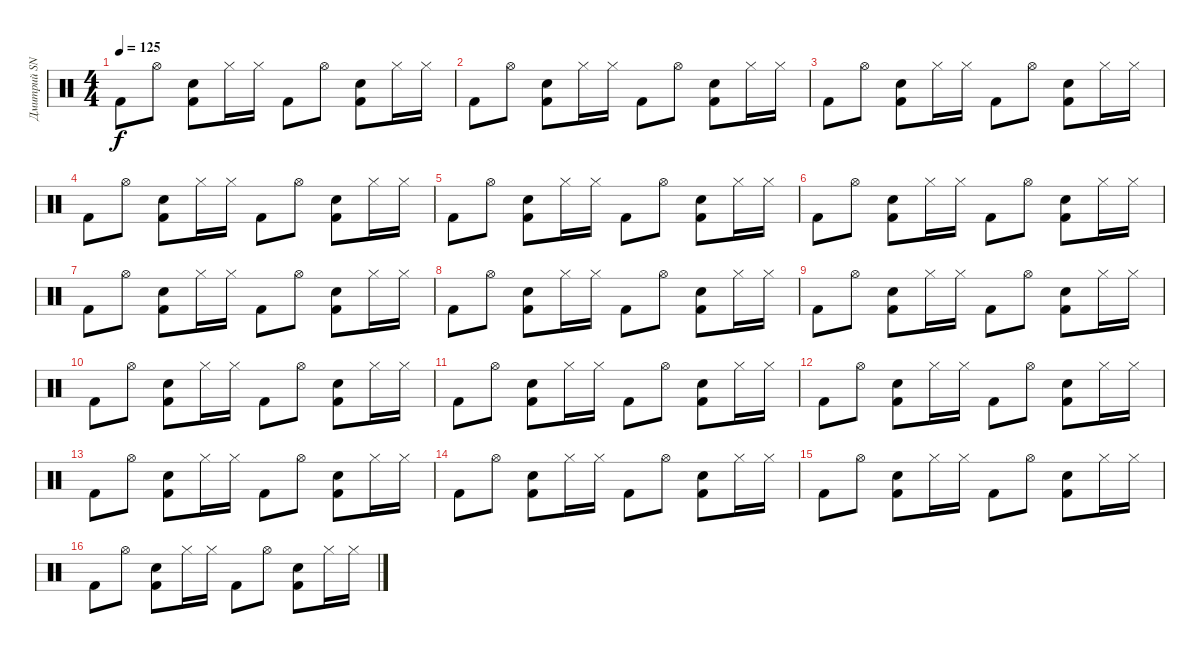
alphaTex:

\track ("Дмитрий SNAKE Хакимов" "Дмитрий SN") {instrument percussion}
\staff {score}
\articulation defaults
\ts (4 4)
\tempo 125
\clef neutral
\ks c "Kick (hit) 2".8{dy f} "Hi-Hat (open)".8
("Snare (hit) 2" "Kick (hit) 2").8 "Hi-Hat (closed)".16 "Hi-Hat (closed)".16 "Kick (hit) 2".8 "Hi-Hat (open)".8 ("Snare (hit) 2" "Kick (hit) 2").8 "Hi-Hat (closed)".16 "Hi-Hat (closed)".16 |
"Kick (hit) 2".8 "Hi-Hat (open)".8 ("Snare (hit) 2" "Kick (hit) 2").8 "Hi-Hat (closed)".16 "Hi-Hat (closed)".16 "Kick (hit) 2".8 "Hi-Hat (open)".8 ("Snare (hit) 2" "Kick (hit) 2").8 "Hi-Hat (closed)".16 "Hi-Hat (closed)".16 |
"Kick (hit) 2".8 "Hi-Hat (open)".8 ("Snare (hit) 2" "Kick (hit) 2").8 "Hi-Hat (closed)".16 "Hi-Hat (closed)".16 "Kick (hit) 2".8 "Hi-Hat (open)".8 ("Snare (hit) 2" "Kick (hit) 2").8 "Hi-Hat (closed)".16 "Hi-Hat (closed)".16 |
"Kick (hit) 2".8 "Hi-Hat (open)".8 ("Snare (hit) 2" "Kick (hit) 2").8 "Hi-Hat (closed)".16 "Hi-Hat (closed)".16 "Kick (hit) 2".8 "Hi-Hat (open)".8 ("Snare (hit) 2" "Kick (hit) 2").8 "Hi-Hat (closed)".16 "Hi-Hat (closed)".16 |
"Kick (hit) 2".8 "Hi-Hat (open)".8 ("Snare (hit) 2" "Kick (hit) 2").8 "Hi-Hat (closed)".16 "Hi-Hat (closed)".16 "Kick (hit) 2".8 "Hi-Hat (open)".8 ("Snare (hit) 2" "Kick (hit) 2").8 "Hi-Hat (closed)".16 "Hi-Hat (closed)".16 |
"Kick (hit) 2".8 "Hi-Hat (open)".8 ("Snare (hit) 2" "Kick (hit) 2").8 "Hi-Hat (closed)".16 "Hi-Hat (closed)".16 "Kick (hit) 2".8 "Hi-Hat (open)".8 ("Snare (hit) 2" "Kick (hit) 2").8 "Hi-Hat (closed)".16 "Hi-Hat (closed)".16 |
"Kick (hit) 2".8 "Hi-Hat (open)".8 ("Snare (hit) 2" "Kick (hit) 2").8 "Hi-Hat (closed)".16 "Hi-Hat (closed)".16 "Kick (hit) 2".8 "Hi-Hat (open)".8 ("Snare (hit) 2" "Kick (hit) 2").8 "Hi-Hat (closed)".16 "Hi-Hat (closed)".16 |
"Kick (hit) 2".8 "Hi-Hat (open)".8 ("Snare (hit) 2" "Kick (hit) 2").8 "Hi-Hat (closed)".16 "Hi-Hat (closed)".16 "Kick (hit) 2".8 "Hi-Hat (open)".8 ("Snare (hit) 2" "Kick (hit) 2").8 "Hi-Hat (closed)".16 "Hi-Hat (closed)".16 |
"Kick (hit) 2".8 "Hi-Hat (open)".8 ("Snare (hit) 2" "Kick (hit) 2").8 "Hi-Hat (closed)".16 "Hi-Hat (closed)".16 "Kick (hit) 2".8 "Hi-Hat (open)".8 ("Snare (hit) 2" "Kick (hit) 2").8 "Hi-Hat (closed)".16 "Hi-Hat (closed)".16 |
"Kick (hit) 2".8 "Hi-Hat (open)".8 ("Snare (hit) 2" "Kick (hit) 2").8 "Hi-Hat (closed)".16 "Hi-Hat (closed)".16 "Kick (hit) 2".8 "Hi-Hat (open)".8 ("Snare (hit) 2" "Kick (hit) 2").8 "Hi-Hat (closed)".16 "Hi-Hat (closed)".16 |
"Kick (hit) 2".8 "Hi-Hat (open)".8 ("Snare (hit) 2" "Kick (hit) 2").8 "Hi-Hat (closed)".16 "Hi-Hat (closed)".16 "Kick (hit) 2".8 "Hi-Hat (open)".8 ("Snare (hit) 2" "Kick (hit) 2").8 "Hi-Hat (closed)".16 "Hi-Hat (closed)".16 |
"Kick (hit) 2".8 "Hi-Hat (open)".8 ("Snare (hit) 2" "Kick (hit) 2").8 "Hi-Hat (closed)".16 "Hi-Hat (closed)".16 "Kick (hit) 2".8 "Hi-Hat (open)".8 ("Snare (hit) 2" "Kick (hit) 2").8 "Hi-Hat (closed)".16 "Hi-Hat (closed)".16 |
"Kick (hit) 2".8 "Hi-Hat (open)".8 ("Snare (hit) 2" "Kick (hit) 2").8 "Hi-Hat (closed)".16 "Hi-Hat (closed)".16 "Kick (hit) 2".8 "Hi-Hat (open)".8 ("Snare (hit) 2" "Kick (hit) 2").8 "Hi-Hat (closed)".16 "Hi-Hat (closed)".16 |
"Kick (hit) 2".8 "Hi-Hat (open)".8 ("Snare (hit) 2" "Kick (hit) 2").8 "Hi-Hat (closed)".16 "Hi-Hat (closed)".16 "Kick (hit) 2".8 "Hi-Hat (open)".8 ("Snare (hit) 2" "Kick (hit) 2").8 "Hi-Hat (closed)".16 "Hi-Hat (closed)".16 |
"Kick (hit) 2".8 "Hi-Hat (open)".8 ("Snare (hit) 2" "Kick (hit) 2").8 "Hi-Hat (closed)".16 "Hi-Hat (closed)".16 "Kick (hit) 2".8 "Hi-Hat (open)".8 ("Snare (hit) 2" "Kick (hit) 2").8 "Hi-Hat (closed)".16 "Hi-Hat (closed)".16 |
"Kick (hit) 2".8 "Hi-Hat (open)".8 ("Snare (hit) 2" "Kick (hit) 2").8 "Hi-Hat (closed)".16 "Hi-Hat (closed)".16 "Kick (hit) 2".8 "Hi-Hat (open)".8 ("Snare (hit) 2" "Kick (hit) 2").8 "Hi-Hat (closed)".16 "Hi-Hat (closed)".16
